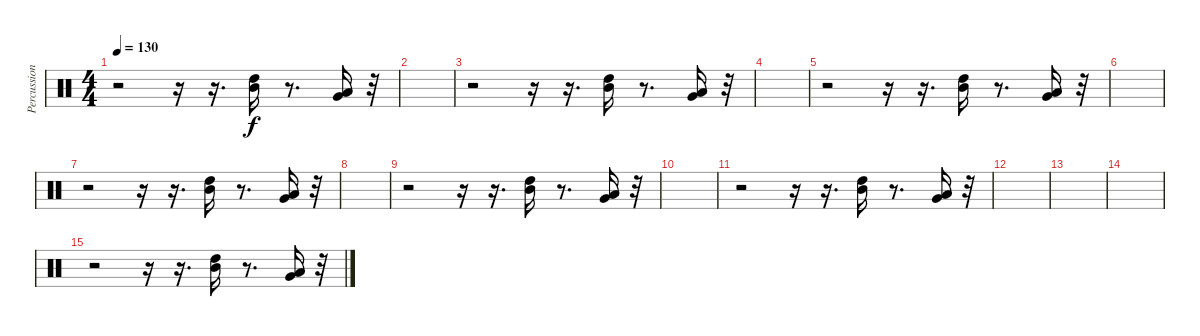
\track ("Percussion" "Percussion") {instrument percussion bank 177}
\staff {score}
\articulation defaults
\ts (4 4)
\tempo 130
\clef neutral
\ks c
r.2{dy f} r.16 r.16{d} ("High Tom (hit)" "Mid Tom (hit)").16 r.8{d} ("Low Tom (hit)" "Very Low Tom (hit)").16 r.32 |
|
r.2 r.16 r.16{d} ("High Tom (hit)" "Mid Tom (hit)").16 r.8{d} ("Low Tom (hit)" "Very Low Tom (hit)").16 r.32 |
|
r.2 r.16 r.16{d} ("High Tom (hit)" "Mid Tom (hit)").16 r.8{d} ("Low Tom (hit)" "Very Low Tom (hit)").16 r.32 |
|
r.2 r.16 r.16{d} ("High Tom (hit)" "Mid Tom (hit)").16 r.8{d} ("Low Tom (hit)" "Very Low Tom (hit)").16 r.32 |
|
r.2 r.16 r.16{d} ("High Tom (hit)" "Mid Tom (hit)").16 r.8{d} ("Low Tom (hit)" "Very Low Tom (hit)").16 r.32 |
|
r.2 r.16 r.16{d} ("High Tom (hit)" "Mid Tom (hit)").16 r.8{d} ("Low Tom (hit)" "Very Low Tom (hit)").16 r.32 |
|
|
|
r.2 r.16 r.16{d} ("High Tom (hit)" "Mid Tom (hit)").16 r.8{d} ("Low Tom (hit)" "Very Low Tom (hit)").16 r.32
